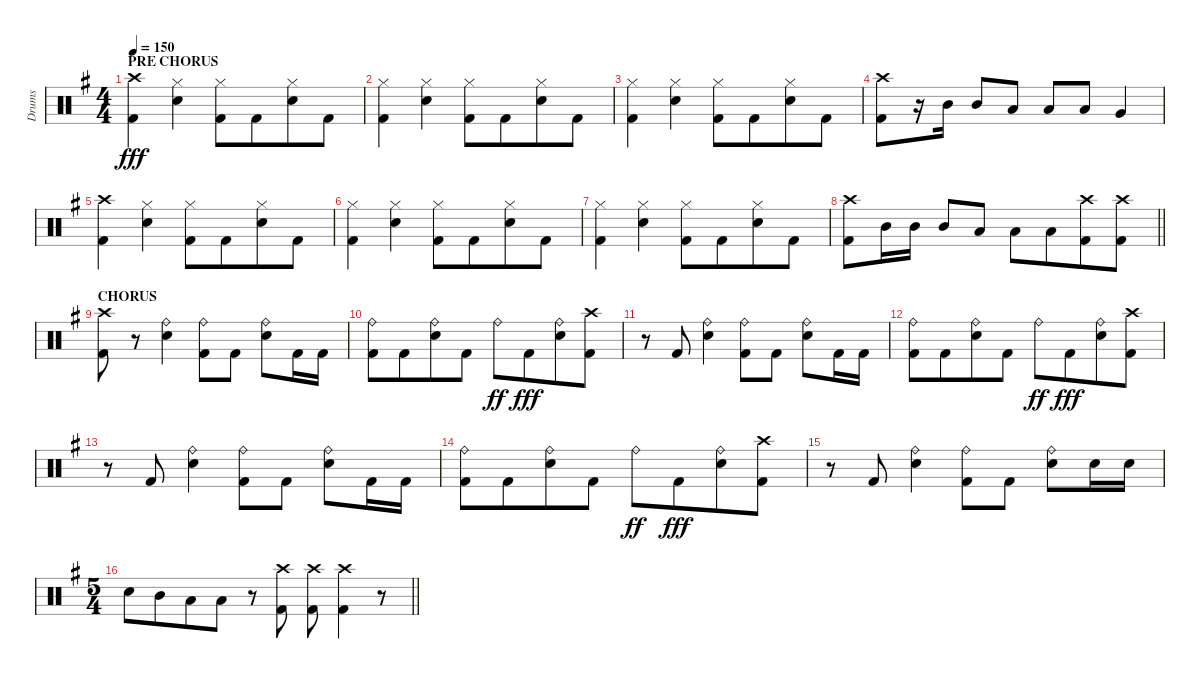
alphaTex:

\track ("Drums" "Drums") {instrument percussion}
\staff {score}
\articulation defaults
\ts (4 4)
\section ("" "PRE CHORUS")
\tempo 150
\clef neutral
\ks eminor
("Crash high (hit)" "Kick (hit) 2").4{dy fff} ("Hi-Hat (closed)" "Snare (hit) 2").4 ("Hi-Hat (closed)" "Kick (hit) 2").8 "Kick (hit) 2".8{beam merge} ("Hi-Hat (closed)" "Snare (hit) 2").8 "Kick (hit) 2".8 |
("Hi-Hat (closed)" "Kick (hit) 2").4 ("Hi-Hat (closed)" "Snare (hit) 2").4 ("Hi-Hat (closed)" "Kick (hit) 2").8 "Kick (hit) 2".8{beam merge} ("Hi-Hat (closed)" "Snare (hit) 2").8 "Kick (hit) 2".8 |
("Hi-Hat (closed)" "Kick (hit) 2").4 ("Hi-Hat (closed)" "Snare (hit) 2").4 ("Hi-Hat (closed)" "Kick (hit) 2").8 "Kick (hit) 2".8{beam merge} ("Hi-Hat (closed)" "Snare (hit) 2").8 "Kick (hit) 2".8 |
("Crash high (hit)" "Kick (hit) 2").8 r.16 "Mid Tom (hit)".16 "Mid Tom (hit)".8 "Low Tom (hit)".8 "Low Tom (hit)".8 "Low Tom (hit)".8 "Very Low Tom (hit)".4 |
("Crash high (hit)" "Kick (hit) 2").4 ("Hi-Hat (closed)" "Snare (hit) 2").4 ("Hi-Hat (closed)" "Kick (hit) 2").8 "Kick (hit) 2".8{beam merge} ("Hi-Hat (closed)" "Snare (hit) 2").8 "Kick (hit) 2".8 |
("Hi-Hat (closed)" "Kick (hit) 2").4 ("Hi-Hat (closed)" "Snare (hit) 2").4 ("Hi-Hat (closed)" "Kick (hit) 2").8 "Kick (hit) 2".8{beam merge} ("Hi-Hat (closed)" "Snare (hit) 2").8 "Kick (hit) 2".8 |
("Hi-Hat (closed)" "Kick (hit) 2").4 ("Hi-Hat (closed)" "Snare (hit) 2").4 ("Hi-Hat (closed)" "Kick (hit) 2").8 "Kick (hit) 2".8{beam merge} ("Hi-Hat (closed)" "Snare (hit) 2").8 "Kick (hit) 2".8 |
\barLineRight lightlight
("Crash high (hit)" "Kick (hit) 2").8 "Mid Tom (hit)".16 "Mid Tom (hit)".16 "Mid Tom (hit)".8 "Low Tom (hit)".8 "Low Tom (hit)".8 "Low Tom (hit)".8{beam merge} ("Crash high (hit)" "Kick (hit) 2").8 ("Crash high (hit)" "Kick (hit) 2").8 |
\section ("" "CHORUS")
("Crash high (hit)" "Kick (hit) 2").8 r.8 ("Ride (bell)" "Snare (hit) 2").4 ("Ride (bell)" "Kick (hit) 2").8 "Kick (hit) 2".8 ("Ride (bell)" "Snare (hit) 2").8 "Kick (hit) 2".16 "Kick (hit) 2".16 |
("Ride (bell)" "Kick (hit) 2").8 "Kick (hit) 2".8{beam merge} ("Ride (bell)" "Snare (hit) 2").8 "Kick (hit) 2".8 "Ride (bell)".8{dy ff} "Kick (hit) 2".8{dy fff beam merge} ("Ride (bell)" "Snare (hit) 2").8 ("Crash high (hit)" "Kick (hit) 2").8 |
r.8 "Kick (hit) 2".8 ("Ride (bell)" "Snare (hit) 2").4 ("Ride (bell)" "Kick (hit) 2").8 "Kick (hit) 2".8 ("Ride (bell)" "Snare (hit) 2").8 "Kick (hit) 2".16 "Kick (hit) 2".16 |
("Ride (bell)" "Kick (hit) 2").8 "Kick (hit) 2".8{beam merge} ("Ride (bell)" "Snare (hit) 2").8 "Kick (hit) 2".8 "Ride (bell)".8{dy ff} "Kick (hit) 2".8{dy fff beam merge} ("Ride (bell)" "Snare (hit) 2").8 ("Crash high (hit)" "Kick (hit) 2").8 |
r.8 "Kick (hit) 2".8 ("Ride (bell)" "Snare (hit) 2").4 ("Ride (bell)" "Kick (hit) 2").8 "Kick (hit) 2".8 ("Ride (bell)" "Snare (hit) 2").8 "Kick (hit) 2".16 "Kick (hit) 2".16 |
("Ride (bell)" "Kick (hit) 2").8 "Kick (hit) 2".8{beam merge} ("Ride (bell)" "Snare (hit) 2").8 "Kick (hit) 2".8 "Ride (bell)".8{dy ff} "Kick (hit) 2".8{dy fff beam merge} ("Ride (bell)" "Snare (hit) 2").8 ("Crash high (hit)" "Kick (hit) 2").8 |
r.8 "Kick (hit) 2".8 ("Ride (bell)" "Snare (hit) 2").4 ("Ride (bell)" "Kick (hit) 2").8 "Kick (hit) 2".8 ("Ride (bell)" "Snare (hit) 2").8 "Snare (hit) 2".16 "Snare (hit) 2".16 |
\ts (5 4)
\barLineRight lightlight "Snare (hit) 2".8 "Mid Tom (hit)".8{beam merge} "Low Tom (hit)".8 "Low Tom (hit)".8
r.8 ("Crash high (hit)" "Kick (hit) 2").8 ("Crash high (hit)" "Kick (hit) 2").8 ("Crash high (hit)" "Kick (hit) 2").4 r.8
